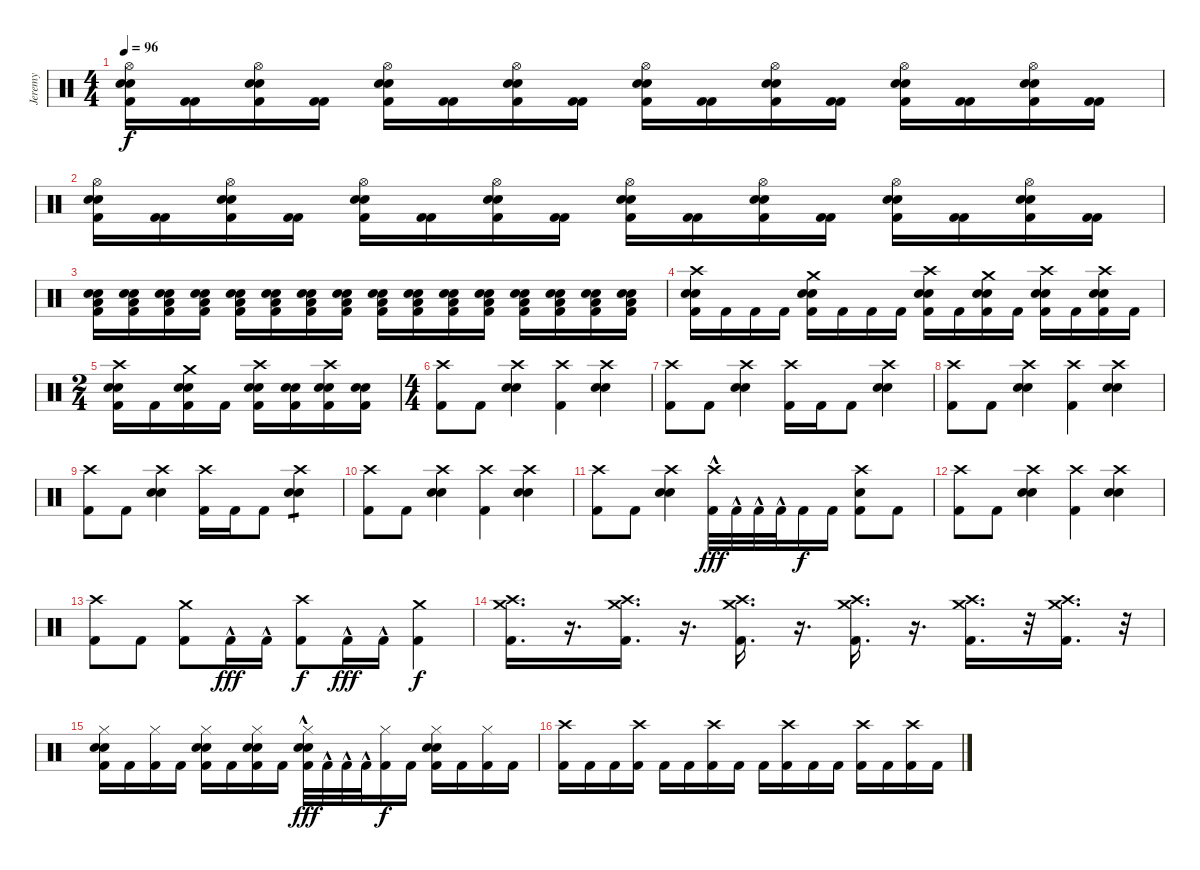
\track ("Jeremy" "Jeremy") {instrument percussion}
\staff {score}
\articulation defaults
\ts (4 4)
\tempo 96
\clef neutral
\ks c
("Hi-Hat (open)" "Electric Snare (hit)" "Snare (hit) 2" "Kick (hit) 2").16{dy f} ("Kick (hit) 2" "Kick (hit) 2").16 ("Hi-Hat (open)" "Electric Snare (hit)" "Snare (hit) 2" "Kick (hit) 2").16 ("Kick (hit) 2" "Kick (hit) 2").16 ("Hi-Hat (open)" "Electric Snare (hit)" "Snare (hit) 2" "Kick (hit) 2").16 ("Kick (hit) 2" "Kick (hit) 2").16 ("Hi-Hat (open)" "Electric Snare (hit)" "Snare (hit) 2" "Kick (hit) 2").16 ("Kick (hit) 2" "Kick (hit) 2").16 ("Hi-Hat (open)" "Electric Snare (hit)" "Snare (hit) 2" "Kick (hit) 2").16 ("Kick (hit) 2" "Kick (hit) 2").16 ("Hi-Hat (open)" "Electric Snare (hit)" "Snare (hit) 2" "Kick (hit) 2").16 ("Kick (hit) 2" "Kick (hit) 2").16 ("Hi-Hat (open)" "Electric Snare (hit)" "Snare (hit) 2" "Kick (hit) 2").16 ("Kick (hit) 2" "Kick (hit) 2").16 ("Hi-Hat (open)" "Electric Snare (hit)" "Snare (hit) 2" "Kick (hit) 2").16 ("Kick (hit) 2" "Kick (hit) 2").16 |
("Hi-Hat (open)" "Electric Snare (hit)" "Snare (hit) 2" "Kick (hit) 2").16 ("Kick (hit) 2" "Kick (hit) 2").16 ("Hi-Hat (open)" "Electric Snare (hit)" "Snare (hit) 2" "Kick (hit) 2").16 ("Kick (hit) 2" "Kick (hit) 2").16 ("Hi-Hat (open)" "Electric Snare (hit)" "Snare (hit) 2" "Kick (hit) 2").16 ("Kick (hit) 2" "Kick (hit) 2").16 ("Hi-Hat (open)" "Electric Snare (hit)" "Snare (hit) 2" "Kick (hit) 2").16 ("Kick (hit) 2" "Kick (hit) 2").16 ("Hi-Hat (open)" "Electric Snare (hit)" "Snare (hit) 2" "Kick (hit) 2").16 ("Kick (hit) 2" "Kick (hit) 2").16 ("Hi-Hat (open)" "Electric Snare (hit)" "Snare (hit) 2" "Kick (hit) 2").16 ("Kick (hit) 2" "Kick (hit) 2").16 ("Hi-Hat (open)" "Electric Snare (hit)" "Snare (hit) 2" "Kick (hit) 2").16 ("Kick (hit) 2" "Kick (hit) 2").16 ("Hi-Hat (open)" "Electric Snare (hit)" "Snare (hit) 2" "Kick (hit) 2").16 ("Kick (hit) 2" "Kick (hit) 2").16 |
("Snare (hit) 2" "Electric Snare (hit)" "Low Floor Tom (hit)" "Kick (hit) 2").16{volume 7} ("Snare (hit) 2" "Electric Snare (hit)" "Low Floor Tom (hit)" "Kick (hit) 2").16{volume 15} ("Snare (hit) 2" "Electric Snare (hit)" "Low Floor Tom (hit)" "Kick (hit) 2").16 ("Snare (hit) 2" "Electric Snare (hit)" "Low Floor Tom (hit)" "Kick (hit) 2").16 ("Snare (hit) 2" "Electric Snare (hit)" "Low Floor Tom (hit)" "Kick (hit) 2").16 ("Snare (hit) 2" "Electric Snare (hit)" "Low Floor Tom (hit)" "Kick (hit) 2").16 ("Snare (hit) 2" "Electric Snare (hit)" "Low Floor Tom (hit)" "Kick (hit) 2").16 ("Snare (hit) 2" "Electric Snare (hit)" "Low Floor Tom (hit)" "Kick (hit) 2").16 ("Snare (hit) 2" "Electric Snare (hit)" "Low Floor Tom (hit)" "Kick (hit) 2").16 ("Snare (hit) 2" "Electric Snare (hit)" "Low Floor Tom (hit)" "Kick (hit) 2").16 ("Snare (hit) 2" "Electric Snare (hit)" "Low Floor Tom (hit)" "Kick (hit) 2").16 ("Snare (hit) 2" "Electric Snare (hit)" "Low Floor Tom (hit)" "Kick (hit) 2").16 ("Snare (hit) 2" "Electric Snare (hit)" "Low Floor Tom (hit)" "Kick (hit) 2").16 ("Snare (hit) 2" "Electric Snare (hit)" "Low Floor Tom (hit)" "Kick (hit) 2").16 ("Snare (hit) 2" "Electric Snare (hit)" "Low Floor Tom (hit)" "Kick (hit) 2").16 ("Snare (hit) 2" "Electric Snare (hit)" "Low Floor Tom (hit)" "Kick (hit) 2").16 |
("Crash high (hit)" "Electric Snare (hit)" "Snare (hit) 2" "Kick (hit) 2").16 "Kick (hit) 2".16 "Kick (hit) 2".16 "Kick (hit) 2".16 ("Crash medium (hit)" "Electric Snare (hit)" "Snare (hit) 2" "Kick (hit) 2").16 "Kick (hit) 2".16 "Kick (hit) 2".16 "Kick (hit) 2".16 ("Crash high (hit)" "Electric Snare (hit)" "Snare (hit) 2" "Kick (hit) 2").16 "Kick (hit) 2".16 ("Crash medium (hit)" "Electric Snare (hit)" "Snare (hit) 2" "Kick (hit) 2").16 "Kick (hit) 2".16 ("Crash high (hit)" "Electric Snare (hit)" "Snare (hit) 2" "Kick (hit) 2").16 "Kick (hit) 2".16 ("Crash high (hit)" "Electric Snare (hit)" "Snare (hit) 2" "Kick (hit) 2").16 "Kick (hit) 2".16 |
\ts (2 4)
("Crash high (hit)" "Electric Snare (hit)" "Snare (hit) 2" "Kick (hit) 2").16 "Kick (hit) 2".16 ("Crash medium (hit)" "Electric Snare (hit)" "Snare (hit) 2" "Kick (hit) 2").16 "Kick (hit) 2".16 ("Crash high (hit)" "Electric Snare (hit)" "Snare (hit) 2" "Kick (hit) 2").16 ("Electric Snare (hit)" "Snare (hit) 2" "Kick (hit) 2").16 ("Crash high (hit)" "Electric Snare (hit)" "Snare (hit) 2" "Kick (hit) 2").16 ("Electric Snare (hit)" "Snare (hit) 2" "Kick (hit) 2").16 |
\ts (4 4)
("Crash high (hit)" "Kick (hit) 2").8 "Kick (hit) 2".8 ("Crash high (hit)" "Electric Snare (hit)" "Snare (hit) 2").4 ("Crash high (hit)" "Kick (hit) 2").4 ("Crash high (hit)" "Electric Snare (hit)" "Snare (hit) 2").4 |
("Crash high (hit)" "Kick (hit) 2").8 "Kick (hit) 2".8 ("Crash high (hit)" "Electric Snare (hit)" "Snare (hit) 2").4 ("Kick (hit) 2" "Crash high (hit)").16 "Kick (hit) 2".16 "Kick (hit) 2".8 ("Crash high (hit)" "Electric Snare (hit)" "Snare (hit) 2").4 |
("Crash high (hit)" "Kick (hit) 2").8 "Kick (hit) 2".8 ("Crash high (hit)" "Electric Snare (hit)" "Snare (hit) 2").4 ("Crash high (hit)" "Kick (hit) 2").4 ("Crash high (hit)" "Electric Snare (hit)" "Snare (hit) 2").4 |
("Crash high (hit)" "Kick (hit) 2").8 "Kick (hit) 2".8 ("Crash high (hit)" "Electric Snare (hit)" "Snare (hit) 2").4 ("Kick (hit) 2" "Crash high (hit)").16 "Kick (hit) 2".16 "Kick (hit) 2".8 ("Crash high (hit)" "Electric Snare (hit)" "Snare (hit) 2").4{tp 1} |
("Crash high (hit)" "Kick (hit) 2").8 "Kick (hit) 2".8 ("Crash high (hit)" "Electric Snare (hit)" "Snare (hit) 2").4 ("Crash high (hit)" "Kick (hit) 2").4 ("Crash high (hit)" "Electric Snare (hit)" "Snare (hit) 2").4 |
("Crash high (hit)" "Kick (hit) 2").8 "Kick (hit) 2".8 ("Crash high (hit)" "Electric Snare (hit)" "Snare (hit) 2").4 ("Kick (hit) 2"{hac} "Crash high (hit)").32{dy fff} "Kick (hit) 2"{hac}.32 "Kick (hit) 2"{hac}.32 "Kick (hit) 2"{hac}.32 "Kick (hit) 2".16{dy f} "Kick (hit) 2".16 ("Crash high (hit)" "Electric Snare (hit)" "Kick (hit) 2").8 "Kick (hit) 2".8 |
("Crash high (hit)" "Kick (hit) 2").8 "Kick (hit) 2".8 ("Crash high (hit)" "Electric Snare (hit)" "Snare (hit) 2").4 ("Crash high (hit)" "Kick (hit) 2").4 ("Crash high (hit)" "Electric Snare (hit)" "Snare (hit) 2").4 |
("Crash high (hit)" "Kick (hit) 2").8 "Kick (hit) 2".8 ("Crash medium (hit)" "Kick (hit) 2").8 "Kick (hit) 2"{hac}.16{dy fff} "Kick (hit) 2"{hac}.16 ("Crash high (hit)" "Kick (hit) 2").8{dy f} "Kick (hit) 2"{hac}.16{dy fff} "Kick (hit) 2"{hac}.16 ("Crash medium (hit)" "Kick (hit) 2").4{dy f} |
("Crash high (hit)" "Crash medium (hit)" "Kick (hit) 2").16{d} r.16{d} ("Crash medium (hit)" "Crash high (hit)" "Kick (hit) 2").16{d} r.16{d} ("Crash medium (hit)" "Crash high (hit)" "Kick (hit) 2").16{d} r.16{d} ("Crash medium (hit)" "Crash high (hit)" "Kick (hit) 2").16{d} r.16{d} ("Crash medium (hit)" "Crash high (hit)" "Kick (hit) 2").16{d} r.32 ("Crash medium (hit)" "Crash high (hit)" "Kick (hit) 2").16{d} r.32 |
("Hi-Hat (closed)" "Electric Snare (hit)" "Snare (hit) 2" "Kick (hit) 2").16 "Kick (hit) 2".16 ("Hi-Hat (closed)" "Kick (hit) 2").16 "Kick (hit) 2".16 ("Hi-Hat (closed)" "Electric Snare (hit)" "Snare (hit) 2" "Kick (hit) 2").16 "Kick (hit) 2".16 ("Hi-Hat (closed)" "Electric Snare (hit)" "Snare (hit) 2" "Kick (hit) 2").16 "Kick (hit) 2".16 ("Hi-Hat (closed)" "Electric Snare (hit)" "Snare (hit) 2" "Kick (hit) 2"{hac}).32{dy fff} "Kick (hit) 2"{hac}.32 "Kick (hit) 2"{hac}.32 "Kick (hit) 2"{hac}.32 ("Hi-Hat (closed)" "Kick (hit) 2").16{dy f} "Kick (hit) 2".16 ("Hi-Hat (closed)" "Electric Snare (hit)" "Snare (hit) 2" "Kick (hit) 2").16 "Kick (hit) 2".16 ("Hi-Hat (closed)" "Kick (hit) 2").16 "Kick (hit) 2".16 |
("Crash high (hit)" "Kick (hit) 2").16 "Kick (hit) 2".16 "Kick (hit) 2".16 ("Crash high (hit)" "Kick (hit) 2").16 "Kick (hit) 2".16 "Kick (hit) 2".16 ("Crash high (hit)" "Kick (hit) 2").16 "Kick (hit) 2".16 "Kick (hit) 2".16 ("Crash high (hit)" "Kick (hit) 2").16 "Kick (hit) 2".16 "Kick (hit) 2".16 ("Crash high (hit)" "Kick (hit) 2").16 "Kick (hit) 2".16 ("Crash high (hit)" "Kick (hit) 2").16 "Kick (hit) 2".16
